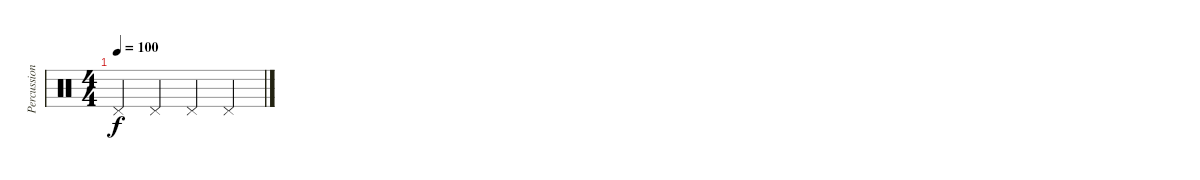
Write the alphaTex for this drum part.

\track ("Percussion" "Percussion") {instrument percussion}
\staff {score}
\articulation defaults
\ts (4 4)
\tempo 100
\clef neutral
\ks c "Pedal Hi-Hat (hit)".4{dy f} "Pedal Hi-Hat (hit)".4 "Pedal Hi-Hat (hit)".4 "Pedal Hi-Hat (hit)".4
